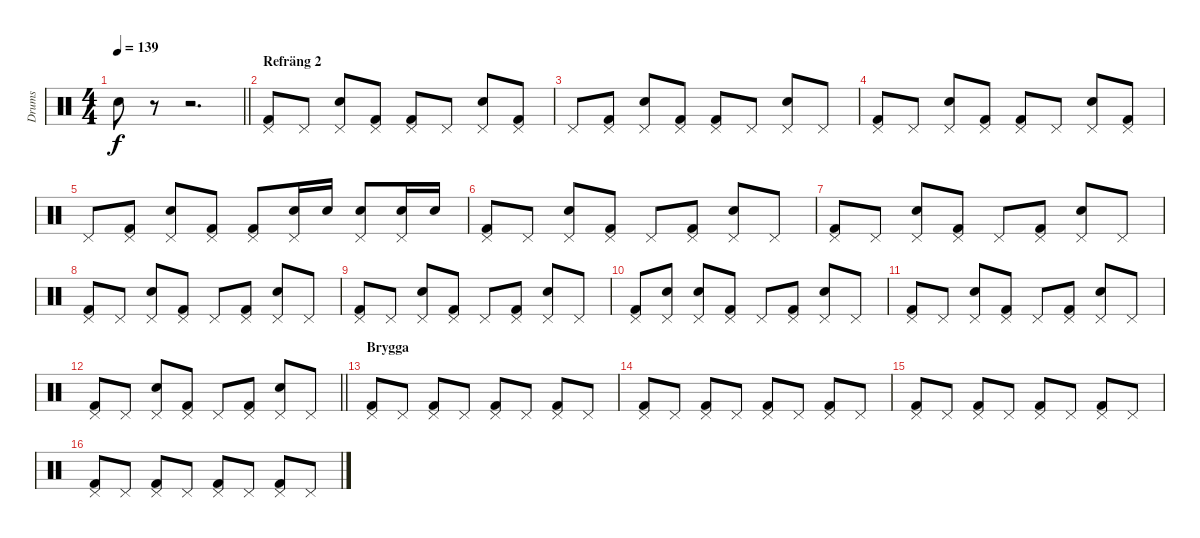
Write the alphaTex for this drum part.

\track ("Drums" "Drums") {instrument percussion}
\staff {score}
\articulation defaults
\ts (4 4)
\tempo 139
\clef neutral
\barLineRight lightlight
\ks c "Snare (hit) 2".8{dy f}
r.8 r.2{d} |
\section ("" "Refräng 2")
("Pedal Hi-Hat (hit)" "Kick (hit) 2").8 "Pedal Hi-Hat (hit)".8 ("Pedal Hi-Hat (hit)" "Snare (hit) 2").8 ("Pedal Hi-Hat (hit)" "Kick (hit) 2").8 ("Pedal Hi-Hat (hit)" "Kick (hit) 2").8 "Pedal Hi-Hat (hit)".8 ("Pedal Hi-Hat (hit)" "Snare (hit) 2").8 ("Pedal Hi-Hat (hit)" "Kick (hit) 2").8 |
"Pedal Hi-Hat (hit)".8 ("Pedal Hi-Hat (hit)" "Kick (hit) 2").8 ("Pedal Hi-Hat (hit)" "Snare (hit) 2").8 ("Pedal Hi-Hat (hit)" "Kick (hit) 2").8 ("Pedal Hi-Hat (hit)" "Kick (hit) 2").8 "Pedal Hi-Hat (hit)".8 ("Pedal Hi-Hat (hit)" "Snare (hit) 2").8 "Pedal Hi-Hat (hit)".8 |
("Pedal Hi-Hat (hit)" "Kick (hit) 2").8 "Pedal Hi-Hat (hit)".8 ("Pedal Hi-Hat (hit)" "Snare (hit) 2").8 ("Pedal Hi-Hat (hit)" "Kick (hit) 2").8 ("Pedal Hi-Hat (hit)" "Kick (hit) 2").8 "Pedal Hi-Hat (hit)".8 ("Pedal Hi-Hat (hit)" "Snare (hit) 2").8 ("Pedal Hi-Hat (hit)" "Kick (hit) 2").8 |
"Pedal Hi-Hat (hit)".8 ("Pedal Hi-Hat (hit)" "Kick (hit) 2").8 ("Pedal Hi-Hat (hit)" "Snare (hit) 2").8 ("Pedal Hi-Hat (hit)" "Kick (hit) 2").8 ("Pedal Hi-Hat (hit)" "Kick (hit) 2").8 ("Pedal Hi-Hat (hit)" "Snare (hit) 2").16 "Snare (hit) 2".16 ("Pedal Hi-Hat (hit)" "Snare (hit) 2").8 ("Pedal Hi-Hat (hit)" "Snare (hit) 2").16 "Snare (hit) 2".16 |
("Pedal Hi-Hat (hit)" "Kick (hit) 2").8 "Pedal Hi-Hat (hit)".8 ("Pedal Hi-Hat (hit)" "Snare (hit) 2").8 ("Pedal Hi-Hat (hit)" "Kick (hit) 2").8 "Pedal Hi-Hat (hit)".8 ("Pedal Hi-Hat (hit)" "Kick (hit) 2").8 ("Pedal Hi-Hat (hit)" "Snare (hit) 2").8 "Pedal Hi-Hat (hit)".8 |
("Pedal Hi-Hat (hit)" "Kick (hit) 2").8 "Pedal Hi-Hat (hit)".8 ("Pedal Hi-Hat (hit)" "Snare (hit) 2").8 ("Pedal Hi-Hat (hit)" "Kick (hit) 2").8 "Pedal Hi-Hat (hit)".8 ("Pedal Hi-Hat (hit)" "Kick (hit) 2").8 ("Pedal Hi-Hat (hit)" "Snare (hit) 2").8 "Pedal Hi-Hat (hit)".8 |
("Pedal Hi-Hat (hit)" "Kick (hit) 2").8 "Pedal Hi-Hat (hit)".8 ("Pedal Hi-Hat (hit)" "Snare (hit) 2").8 ("Pedal Hi-Hat (hit)" "Kick (hit) 2").8 "Pedal Hi-Hat (hit)".8 ("Pedal Hi-Hat (hit)" "Kick (hit) 2").8 ("Pedal Hi-Hat (hit)" "Snare (hit) 2").8 "Pedal Hi-Hat (hit)".8 |
("Pedal Hi-Hat (hit)" "Kick (hit) 2").8 "Pedal Hi-Hat (hit)".8 ("Pedal Hi-Hat (hit)" "Snare (hit) 2").8 ("Pedal Hi-Hat (hit)" "Kick (hit) 2").8 "Pedal Hi-Hat (hit)".8 ("Pedal Hi-Hat (hit)" "Kick (hit) 2").8 ("Pedal Hi-Hat (hit)" "Snare (hit) 2").8 "Pedal Hi-Hat (hit)".8 |
("Pedal Hi-Hat (hit)" "Kick (hit) 2").8 ("Pedal Hi-Hat (hit)" "Snare (hit) 2").8 ("Pedal Hi-Hat (hit)" "Snare (hit) 2").8 ("Pedal Hi-Hat (hit)" "Kick (hit) 2").8 "Pedal Hi-Hat (hit)".8 ("Pedal Hi-Hat (hit)" "Kick (hit) 2").8 ("Pedal Hi-Hat (hit)" "Snare (hit) 2").8 "Pedal Hi-Hat (hit)".8 |
("Pedal Hi-Hat (hit)" "Kick (hit) 2").8 "Pedal Hi-Hat (hit)".8 ("Pedal Hi-Hat (hit)" "Snare (hit) 2").8 ("Pedal Hi-Hat (hit)" "Kick (hit) 2").8 "Pedal Hi-Hat (hit)".8 ("Pedal Hi-Hat (hit)" "Kick (hit) 2").8 ("Pedal Hi-Hat (hit)" "Snare (hit) 2").8 "Pedal Hi-Hat (hit)".8 |
\barLineRight lightlight
("Pedal Hi-Hat (hit)" "Kick (hit) 2").8 "Pedal Hi-Hat (hit)".8 ("Pedal Hi-Hat (hit)" "Snare (hit) 2").8 ("Pedal Hi-Hat (hit)" "Kick (hit) 2").8 "Pedal Hi-Hat (hit)".8 ("Pedal Hi-Hat (hit)" "Kick (hit) 2").8 ("Pedal Hi-Hat (hit)" "Snare (hit) 2").8 "Pedal Hi-Hat (hit)".8 |
\section ("" "Brygga")
("Pedal Hi-Hat (hit)" "Kick (hit) 2").8 "Pedal Hi-Hat (hit)".8 ("Pedal Hi-Hat (hit)" "Kick (hit) 2").8 "Pedal Hi-Hat (hit)".8 ("Pedal Hi-Hat (hit)" "Kick (hit) 2").8 "Pedal Hi-Hat (hit)".8 ("Pedal Hi-Hat (hit)" "Kick (hit) 2").8 "Pedal Hi-Hat (hit)".8 |
("Pedal Hi-Hat (hit)" "Kick (hit) 2").8 "Pedal Hi-Hat (hit)".8 ("Pedal Hi-Hat (hit)" "Kick (hit) 2").8 "Pedal Hi-Hat (hit)".8 ("Pedal Hi-Hat (hit)" "Kick (hit) 2").8 "Pedal Hi-Hat (hit)".8 ("Pedal Hi-Hat (hit)" "Kick (hit) 2").8 "Pedal Hi-Hat (hit)".8 |
("Pedal Hi-Hat (hit)" "Kick (hit) 2").8 "Pedal Hi-Hat (hit)".8 ("Pedal Hi-Hat (hit)" "Kick (hit) 2").8 "Pedal Hi-Hat (hit)".8 ("Pedal Hi-Hat (hit)" "Kick (hit) 2").8 "Pedal Hi-Hat (hit)".8 ("Pedal Hi-Hat (hit)" "Kick (hit) 2").8 "Pedal Hi-Hat (hit)".8 |
("Pedal Hi-Hat (hit)" "Kick (hit) 2").8 "Pedal Hi-Hat (hit)".8 ("Pedal Hi-Hat (hit)" "Kick (hit) 2").8 "Pedal Hi-Hat (hit)".8 ("Pedal Hi-Hat (hit)" "Kick (hit) 2").8 "Pedal Hi-Hat (hit)".8 ("Pedal Hi-Hat (hit)" "Kick (hit) 2").8 "Pedal Hi-Hat (hit)".8
